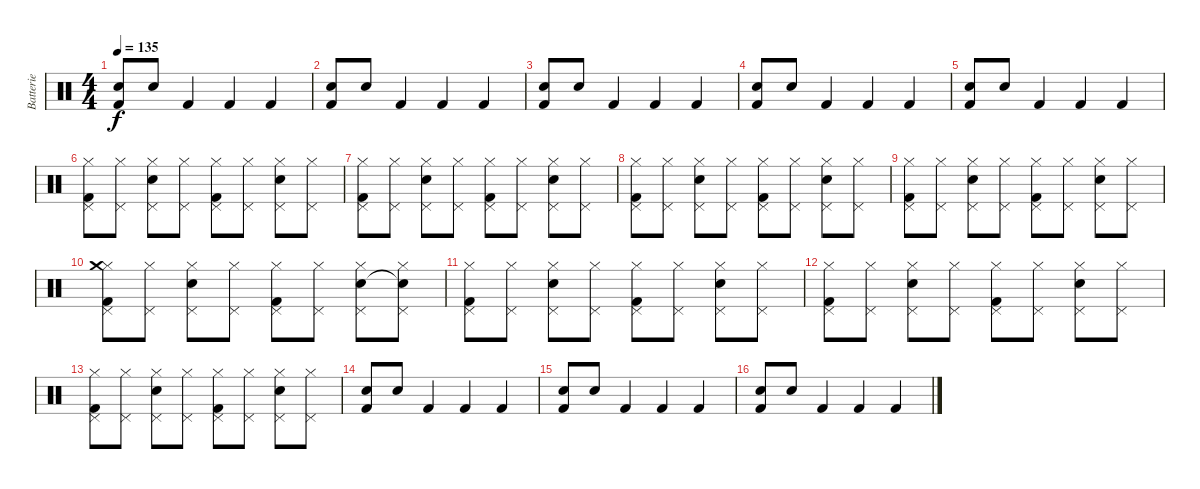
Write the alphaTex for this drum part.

\track ("Batterie" "Batterie") {instrument percussion}
\staff {score}
\articulation defaults
\ts (4 4)
\tempo 135
\clef neutral
\ks c
("Electric Snare (hit)" "Kick (hit) 2").8{dy f} "Electric Snare (hit)".8 "Kick (hit) 2".4 "Kick (hit) 2".4 "Kick (hit) 2".4 |
("Electric Snare (hit)" "Kick (hit) 2").8 "Electric Snare (hit)".8 "Kick (hit) 2".4 "Kick (hit) 2".4 "Kick (hit) 2".4 |
("Electric Snare (hit)" "Kick (hit) 2").8 "Electric Snare (hit)".8 "Kick (hit) 2".4 "Kick (hit) 2".4 "Kick (hit) 2".4 |
("Electric Snare (hit)" "Kick (hit) 2").8 "Electric Snare (hit)".8 "Kick (hit) 2".4 "Kick (hit) 2".4 "Kick (hit) 2".4 |
("Electric Snare (hit)" "Kick (hit) 2").8 "Electric Snare (hit)".8 "Kick (hit) 2".4 "Kick (hit) 2".4 "Kick (hit) 2".4 |
("Hi-Hat (closed)" "Pedal Hi-Hat (hit)" "Kick (hit) 2").8 ("Hi-Hat (closed)" "Pedal Hi-Hat (hit)").8 ("Hi-Hat (closed)" "Pedal Hi-Hat (hit)" "Electric Snare (hit)").8 ("Hi-Hat (closed)" "Pedal Hi-Hat (hit)").8 ("Hi-Hat (closed)" "Pedal Hi-Hat (hit)" "Kick (hit) 2").8 ("Hi-Hat (closed)" "Pedal Hi-Hat (hit)").8 ("Hi-Hat (closed)" "Pedal Hi-Hat (hit)" "Electric Snare (hit)").8 ("Hi-Hat (closed)" "Pedal Hi-Hat (hit)").8 |
("Hi-Hat (closed)" "Pedal Hi-Hat (hit)" "Kick (hit) 2").8 ("Hi-Hat (closed)" "Pedal Hi-Hat (hit)").8 ("Hi-Hat (closed)" "Pedal Hi-Hat (hit)" "Electric Snare (hit)").8 ("Hi-Hat (closed)" "Pedal Hi-Hat (hit)").8 ("Hi-Hat (closed)" "Pedal Hi-Hat (hit)" "Kick (hit) 2").8 ("Hi-Hat (closed)" "Pedal Hi-Hat (hit)").8 ("Hi-Hat (closed)" "Pedal Hi-Hat (hit)" "Electric Snare (hit)").8 ("Hi-Hat (closed)" "Pedal Hi-Hat (hit)").8 |
("Hi-Hat (closed)" "Pedal Hi-Hat (hit)" "Kick (hit) 2").8 ("Hi-Hat (closed)" "Pedal Hi-Hat (hit)").8 ("Hi-Hat (closed)" "Pedal Hi-Hat (hit)" "Electric Snare (hit)").8 ("Hi-Hat (closed)" "Pedal Hi-Hat (hit)").8 ("Hi-Hat (closed)" "Pedal Hi-Hat (hit)" "Kick (hit) 2").8 ("Hi-Hat (closed)" "Pedal Hi-Hat (hit)").8 ("Hi-Hat (closed)" "Pedal Hi-Hat (hit)" "Electric Snare (hit)").8 ("Hi-Hat (closed)" "Pedal Hi-Hat (hit)").8 |
("Hi-Hat (closed)" "Pedal Hi-Hat (hit)" "Kick (hit) 2").8 ("Hi-Hat (closed)" "Pedal Hi-Hat (hit)").8 ("Hi-Hat (closed)" "Pedal Hi-Hat (hit)" "Electric Snare (hit)").8 ("Hi-Hat (closed)" "Pedal Hi-Hat (hit)").8 ("Hi-Hat (closed)" "Pedal Hi-Hat (hit)" "Kick (hit) 2").8 ("Hi-Hat (closed)" "Pedal Hi-Hat (hit)").8 ("Hi-Hat (closed)" "Pedal Hi-Hat (hit)" "Electric Snare (hit)").8 ("Hi-Hat (closed)" "Pedal Hi-Hat (hit)").8 |
("Hi-Hat (closed)" "Pedal Hi-Hat (hit)" "Crash medium (hit)" "Kick (hit) 2").8 ("Hi-Hat (closed)" "Pedal Hi-Hat (hit)").8 ("Hi-Hat (closed)" "Pedal Hi-Hat (hit)" "Electric Snare (hit)").8 ("Hi-Hat (closed)" "Pedal Hi-Hat (hit)").8 ("Hi-Hat (closed)" "Pedal Hi-Hat (hit)" "Kick (hit) 2").8 ("Hi-Hat (closed)" "Pedal Hi-Hat (hit)").8 ("Hi-Hat (closed)" "Pedal Hi-Hat (hit)" "Electric Snare (hit)").8 ("Hi-Hat (closed)" "Pedal Hi-Hat (hit)" "Snare (hit)"{t}).8 |
("Hi-Hat (closed)" "Pedal Hi-Hat (hit)" "Kick (hit) 2").8 ("Hi-Hat (closed)" "Pedal Hi-Hat (hit)").8 ("Hi-Hat (closed)" "Pedal Hi-Hat (hit)" "Electric Snare (hit)").8 ("Hi-Hat (closed)" "Pedal Hi-Hat (hit)").8 ("Hi-Hat (closed)" "Pedal Hi-Hat (hit)" "Kick (hit) 2").8 ("Hi-Hat (closed)" "Pedal Hi-Hat (hit)").8 ("Hi-Hat (closed)" "Pedal Hi-Hat (hit)" "Electric Snare (hit)").8 ("Hi-Hat (closed)" "Pedal Hi-Hat (hit)").8 |
("Hi-Hat (closed)" "Pedal Hi-Hat (hit)" "Kick (hit) 2").8 ("Hi-Hat (closed)" "Pedal Hi-Hat (hit)").8 ("Hi-Hat (closed)" "Pedal Hi-Hat (hit)" "Electric Snare (hit)").8 ("Hi-Hat (closed)" "Pedal Hi-Hat (hit)").8 ("Hi-Hat (closed)" "Pedal Hi-Hat (hit)" "Kick (hit) 2").8 ("Hi-Hat (closed)" "Pedal Hi-Hat (hit)").8 ("Hi-Hat (closed)" "Pedal Hi-Hat (hit)" "Electric Snare (hit)").8 ("Hi-Hat (closed)" "Pedal Hi-Hat (hit)").8 |
("Hi-Hat (closed)" "Pedal Hi-Hat (hit)" "Kick (hit) 2").8 ("Hi-Hat (closed)" "Pedal Hi-Hat (hit)").8 ("Hi-Hat (closed)" "Pedal Hi-Hat (hit)" "Electric Snare (hit)").8 ("Hi-Hat (closed)" "Pedal Hi-Hat (hit)").8 ("Hi-Hat (closed)" "Pedal Hi-Hat (hit)" "Kick (hit) 2").8 ("Hi-Hat (closed)" "Pedal Hi-Hat (hit)").8 ("Hi-Hat (closed)" "Pedal Hi-Hat (hit)" "Electric Snare (hit)").8 ("Hi-Hat (closed)" "Pedal Hi-Hat (hit)").8 |
("Electric Snare (hit)" "Kick (hit) 2").8 "Electric Snare (hit)".8 "Kick (hit) 2".4 "Kick (hit) 2".4 "Kick (hit) 2".4 |
("Electric Snare (hit)" "Kick (hit) 2").8 "Electric Snare (hit)".8 "Kick (hit) 2".4 "Kick (hit) 2".4 "Kick (hit) 2".4 |
("Electric Snare (hit)" "Kick (hit) 2").8 "Electric Snare (hit)".8 "Kick (hit) 2".4 "Kick (hit) 2".4 "Kick (hit) 2".4
